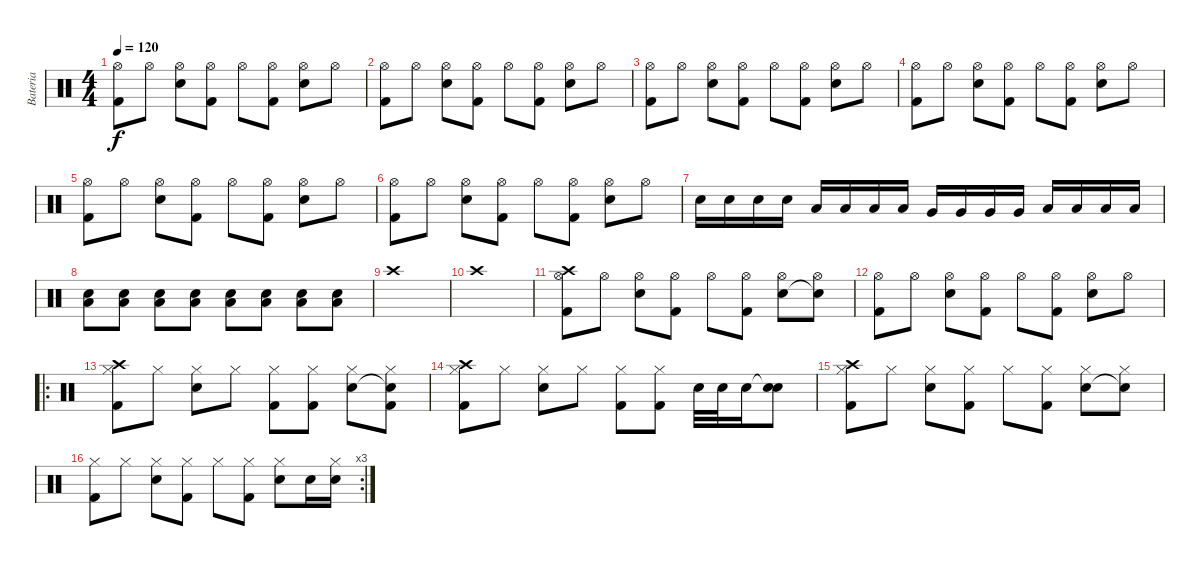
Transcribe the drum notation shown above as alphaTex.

\track ("Bateria" "Bateria") {instrument percussion}
\staff {score}
\articulation defaults
\ts (4 4)
\tempo 120
\clef neutral
\ks c
("Hi-Hat (open)" "Kick (hit) 2").8{dy f} "Hi-Hat (open)".8 ("Hi-Hat (open)" "Snare (hit) 2").8 ("Hi-Hat (open)" "Kick (hit) 2").8 "Hi-Hat (open)".8 ("Hi-Hat (open)" "Kick (hit) 2").8 ("Hi-Hat (open)" "Snare (hit) 2").8 "Hi-Hat (open)".8 |
("Hi-Hat (open)" "Kick (hit) 2").8 "Hi-Hat (open)".8 ("Hi-Hat (open)" "Snare (hit) 2").8 ("Hi-Hat (open)" "Kick (hit) 2").8 "Hi-Hat (open)".8 ("Hi-Hat (open)" "Kick (hit) 2").8 ("Hi-Hat (open)" "Snare (hit) 2").8 "Hi-Hat (open)".8 |
("Hi-Hat (open)" "Kick (hit) 2").8 "Hi-Hat (open)".8 ("Hi-Hat (open)" "Snare (hit) 2").8 ("Hi-Hat (open)" "Kick (hit) 2").8 "Hi-Hat (open)".8 ("Hi-Hat (open)" "Kick (hit) 2").8 ("Hi-Hat (open)" "Snare (hit) 2").8 "Hi-Hat (open)".8 |
("Hi-Hat (open)" "Kick (hit) 2").8 "Hi-Hat (open)".8 ("Hi-Hat (open)" "Snare (hit) 2").8 ("Hi-Hat (open)" "Kick (hit) 2").8 "Hi-Hat (open)".8 ("Hi-Hat (open)" "Kick (hit) 2").8 ("Hi-Hat (open)" "Snare (hit) 2").8 "Hi-Hat (open)".8 |
("Hi-Hat (open)" "Kick (hit) 2").8 "Hi-Hat (open)".8 ("Hi-Hat (open)" "Snare (hit) 2").8 ("Hi-Hat (open)" "Kick (hit) 2").8 "Hi-Hat (open)".8 ("Hi-Hat (open)" "Kick (hit) 2").8 ("Hi-Hat (open)" "Snare (hit) 2").8 "Hi-Hat (open)".8 |
("Hi-Hat (open)" "Kick (hit) 2").8 "Hi-Hat (open)".8 ("Hi-Hat (open)" "Snare (hit) 2").8 ("Hi-Hat (open)" "Kick (hit) 2").8 "Hi-Hat (open)".8 ("Hi-Hat (open)" "Kick (hit) 2").8 ("Hi-Hat (open)" "Snare (hit) 2").8 "Hi-Hat (open)".8 |
"Snare (hit) 2".16 "Snare (hit) 2".16 "Snare (hit) 2".16 "Snare (hit) 2".16 "Low Tom (hit)".16 "Low Tom (hit)".16 "Low Tom (hit)".16 "Low Tom (hit)".16 "Very Low Tom (hit)".16 "Very Low Tom (hit)".16 "Very Low Tom (hit)".16 "Very Low Tom (hit)".16 "Low Floor Tom (hit)".16 "Low Floor Tom (hit)".16 "Low Floor Tom (hit)".16 "Low Floor Tom (hit)".16{volume 6} |
("Low Tom (hit)" "Snare (hit) 2").8{volume 13} ("Low Tom (hit)" "Snare (hit) 2").8 ("Low Tom (hit)" "Snare (hit) 2").8 ("Low Tom (hit)" "Snare (hit) 2").8 ("Low Tom (hit)" "Snare (hit) 2").8 ("Low Tom (hit)" "Snare (hit) 2").8 ("Low Tom (hit)" "Snare (hit) 2").8 ("Low Tom (hit)" "Snare (hit) 2").8 |
"Crash high (hit)".1 |
"Crash high (hit)".1 |
("Hi-Hat (open)" "Crash high (hit)" "Kick (hit) 2").8 "Hi-Hat (open)".8 ("Hi-Hat (open)" "Snare (hit) 2").8 ("Hi-Hat (open)" "Kick (hit) 2").8 "Hi-Hat (open)".8 ("Hi-Hat (open)" "Kick (hit) 2").8 ("Hi-Hat (open)" "Snare (hit) 2").8 ("Hi-Hat (open)" "Snare (hit)"{t}).8 |
("Hi-Hat (open)" "Kick (hit) 2").8 "Hi-Hat (open)".8 ("Hi-Hat (open)" "Snare (hit) 2").8 ("Hi-Hat (open)" "Kick (hit) 2").8 "Hi-Hat (open)".8 ("Hi-Hat (open)" "Kick (hit) 2").8 ("Hi-Hat (open)" "Snare (hit) 2").8 "Hi-Hat (open)".8 |
\ro
("Hi-Hat (closed)" "Crash high (hit)" "Kick (hit) 2").8 "Hi-Hat (closed)".8 ("Hi-Hat (closed)" "Snare (hit) 2").8 "Hi-Hat (closed)".8 ("Hi-Hat (closed)" "Kick (hit) 2").8 ("Hi-Hat (closed)" "Kick (hit) 2").8 ("Hi-Hat (closed)" "Snare (hit) 2").8 ("Hi-Hat (closed)" "Snare (hit)"{t} "Kick (hit) 2").8 |
("Hi-Hat (closed)" "Crash high (hit)" "Kick (hit) 2").8 "Hi-Hat (closed)".8 ("Hi-Hat (closed)" "Snare (hit) 2").8 "Hi-Hat (closed)".8 ("Hi-Hat (closed)" "Kick (hit) 2").8 ("Hi-Hat (closed)" "Kick (hit) 2").8 "Snare (hit) 2".32 "Snare (hit) 2".32 "Snare (hit) 2".16 ("Snare (hit)"{t} "Snare (hit) 2").8 |
("Hi-Hat (closed)" "Crash high (hit)" "Kick (hit) 2").8 "Hi-Hat (closed)".8 ("Hi-Hat (closed)" "Snare (hit) 2").8 ("Hi-Hat (closed)" "Kick (hit) 2").8 "Hi-Hat (closed)".8 ("Hi-Hat (closed)" "Kick (hit) 2").8 ("Hi-Hat (closed)" "Snare (hit) 2").8 ("Hi-Hat (closed)" "Snare (hit)"{t}).8 |
\rc 3
("Hi-Hat (closed)" "Kick (hit) 2").8 "Hi-Hat (closed)".8 ("Hi-Hat (closed)" "Snare (hit) 2").8 ("Hi-Hat (closed)" "Kick (hit) 2").8 "Hi-Hat (closed)".8 ("Hi-Hat (closed)" "Kick (hit) 2").8 ("Hi-Hat (closed)" "Snare (hit) 2").8 "Snare (hit) 2".16 ("Hi-Hat (closed)" "Snare (hit) 2").16
